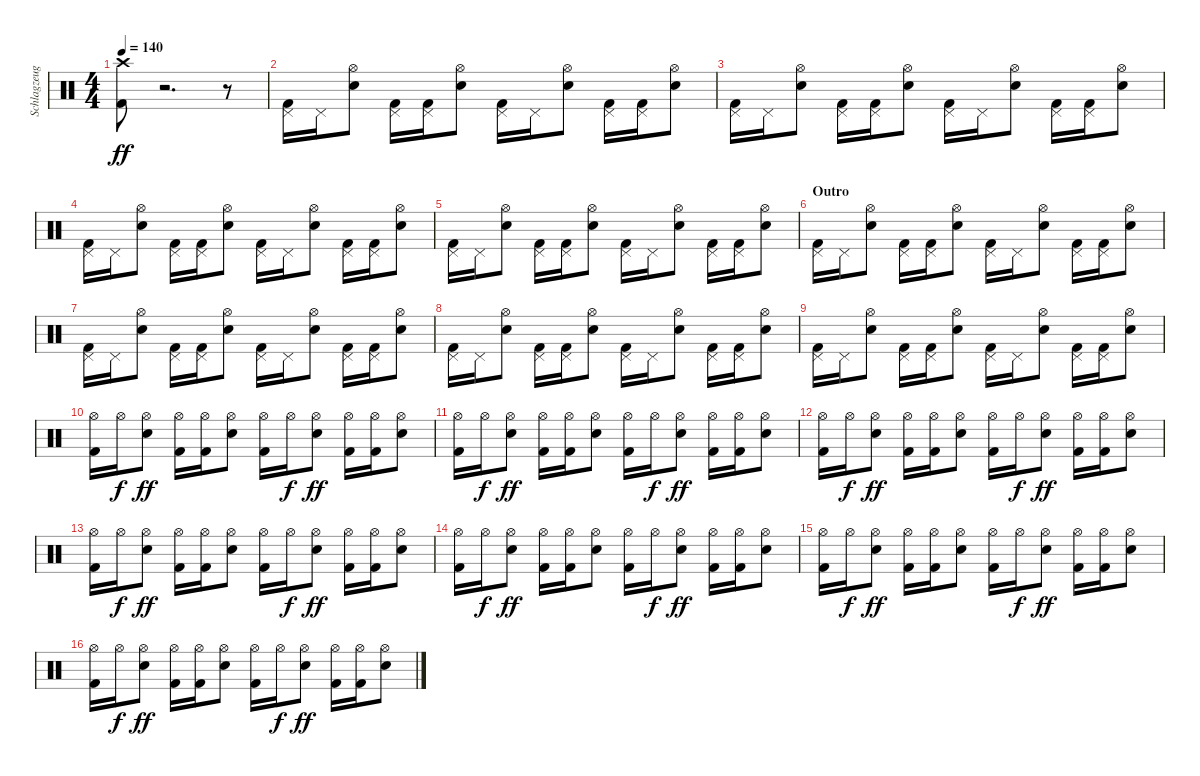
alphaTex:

\track ("Schlagzeug - Bela B." "Schlagzeug") {instrument percussion}
\staff {score}
\articulation defaults
\ts (4 4)
\tempo 140
\clef neutral
\ks c
("Crash high (hit)" "Kick (hit) 2").8{dy ff} r.2{d} r.8 |
("Kick (hit) 2" "Pedal Hi-Hat (hit)").16 "Pedal Hi-Hat (hit)".16 ("Electric Snare (hit)" "Hi-Hat (open)").8 ("Kick (hit) 2" "Pedal Hi-Hat (hit)").16 ("Kick (hit) 2" "Pedal Hi-Hat (hit)").16 ("Electric Snare (hit)" "Hi-Hat (open)").8 ("Kick (hit) 2" "Pedal Hi-Hat (hit)").16 "Pedal Hi-Hat (hit)".16 ("Electric Snare (hit)" "Hi-Hat (open)").8 ("Kick (hit) 2" "Pedal Hi-Hat (hit)").16 ("Kick (hit) 2" "Pedal Hi-Hat (hit)").16 ("Electric Snare (hit)" "Hi-Hat (open)").8 |
("Kick (hit) 2" "Pedal Hi-Hat (hit)").16 "Pedal Hi-Hat (hit)".16 ("Electric Snare (hit)" "Hi-Hat (open)").8 ("Kick (hit) 2" "Pedal Hi-Hat (hit)").16 ("Kick (hit) 2" "Pedal Hi-Hat (hit)").16 ("Electric Snare (hit)" "Hi-Hat (open)").8 ("Kick (hit) 2" "Pedal Hi-Hat (hit)").16 "Pedal Hi-Hat (hit)".16 ("Electric Snare (hit)" "Hi-Hat (open)").8 ("Kick (hit) 2" "Pedal Hi-Hat (hit)").16 ("Kick (hit) 2" "Pedal Hi-Hat (hit)").16 ("Electric Snare (hit)" "Hi-Hat (open)").8 |
("Kick (hit) 2" "Pedal Hi-Hat (hit)").16 "Pedal Hi-Hat (hit)".16 ("Electric Snare (hit)" "Hi-Hat (open)").8 ("Kick (hit) 2" "Pedal Hi-Hat (hit)").16 ("Kick (hit) 2" "Pedal Hi-Hat (hit)").16 ("Electric Snare (hit)" "Hi-Hat (open)").8 ("Kick (hit) 2" "Pedal Hi-Hat (hit)").16 "Pedal Hi-Hat (hit)".16 ("Electric Snare (hit)" "Hi-Hat (open)").8 ("Kick (hit) 2" "Pedal Hi-Hat (hit)").16 ("Kick (hit) 2" "Pedal Hi-Hat (hit)").16 ("Electric Snare (hit)" "Hi-Hat (open)").8 |
("Kick (hit) 2" "Pedal Hi-Hat (hit)").16 "Pedal Hi-Hat (hit)".16 ("Electric Snare (hit)" "Hi-Hat (open)").8 ("Kick (hit) 2" "Pedal Hi-Hat (hit)").16 ("Kick (hit) 2" "Pedal Hi-Hat (hit)").16 ("Electric Snare (hit)" "Hi-Hat (open)").8 ("Pedal Hi-Hat (hit)" "Kick (hit) 2").16 "Pedal Hi-Hat (hit)".16 ("Hi-Hat (open)" "Electric Snare (hit)").8 ("Kick (hit) 2" "Pedal Hi-Hat (hit)").16 ("Pedal Hi-Hat (hit)" "Kick (hit) 2").16 ("Hi-Hat (open)" "Electric Snare (hit)").8 |
\section ("" "Outro")
("Kick (hit) 2" "Pedal Hi-Hat (hit)").16 "Pedal Hi-Hat (hit)".16 ("Electric Snare (hit)" "Hi-Hat (open)").8 ("Kick (hit) 2" "Pedal Hi-Hat (hit)").16 ("Kick (hit) 2" "Pedal Hi-Hat (hit)").16 ("Electric Snare (hit)" "Hi-Hat (open)").8 ("Kick (hit) 2" "Pedal Hi-Hat (hit)").16 "Pedal Hi-Hat (hit)".16 ("Electric Snare (hit)" "Hi-Hat (open)").8 ("Kick (hit) 2" "Pedal Hi-Hat (hit)").16 ("Kick (hit) 2" "Pedal Hi-Hat (hit)").16 ("Electric Snare (hit)" "Hi-Hat (open)").8 |
("Kick (hit) 2" "Pedal Hi-Hat (hit)").16 "Pedal Hi-Hat (hit)".16 ("Electric Snare (hit)" "Hi-Hat (open)").8 ("Kick (hit) 2" "Pedal Hi-Hat (hit)").16 ("Kick (hit) 2" "Pedal Hi-Hat (hit)").16 ("Electric Snare (hit)" "Hi-Hat (open)").8 ("Kick (hit) 2" "Pedal Hi-Hat (hit)").16 "Pedal Hi-Hat (hit)".16 ("Electric Snare (hit)" "Hi-Hat (open)").8 ("Kick (hit) 2" "Pedal Hi-Hat (hit)").16 ("Kick (hit) 2" "Pedal Hi-Hat (hit)").16 ("Electric Snare (hit)" "Hi-Hat (open)").8 |
("Kick (hit) 2" "Pedal Hi-Hat (hit)").16 "Pedal Hi-Hat (hit)".16 ("Electric Snare (hit)" "Hi-Hat (open)").8 ("Kick (hit) 2" "Pedal Hi-Hat (hit)").16 ("Kick (hit) 2" "Pedal Hi-Hat (hit)").16 ("Electric Snare (hit)" "Hi-Hat (open)").8 ("Kick (hit) 2" "Pedal Hi-Hat (hit)").16 "Pedal Hi-Hat (hit)".16 ("Electric Snare (hit)" "Hi-Hat (open)").8 ("Kick (hit) 2" "Pedal Hi-Hat (hit)").16 ("Kick (hit) 2" "Pedal Hi-Hat (hit)").16 ("Electric Snare (hit)" "Hi-Hat (open)").8 |
("Kick (hit) 2" "Pedal Hi-Hat (hit)").16 "Pedal Hi-Hat (hit)".16 ("Electric Snare (hit)" "Hi-Hat (open)").8 ("Kick (hit) 2" "Pedal Hi-Hat (hit)").16 ("Kick (hit) 2" "Pedal Hi-Hat (hit)").16 ("Electric Snare (hit)" "Hi-Hat (open)").8 ("Pedal Hi-Hat (hit)" "Kick (hit) 2").16 "Pedal Hi-Hat (hit)".16 ("Hi-Hat (open)" "Electric Snare (hit)").8 ("Kick (hit) 2" "Pedal Hi-Hat (hit)").16 ("Pedal Hi-Hat (hit)" "Kick (hit) 2").16 ("Hi-Hat (open)" "Electric Snare (hit)").8 |
("Kick (hit) 2" "Hi-Hat (open)").16 "Hi-Hat (open)".16{dy f} ("Electric Snare (hit)" "Hi-Hat (open)").8{dy ff} ("Hi-Hat (open)" "Kick (hit) 2").16 ("Kick (hit) 2" "Hi-Hat (open)").16 ("Hi-Hat (open)" "Electric Snare (hit)").8 ("Kick (hit) 2" "Hi-Hat (open)").16 "Hi-Hat (open)".16{dy f} ("Hi-Hat (open)" "Electric Snare (hit)").8{dy ff} ("Kick (hit) 2" "Hi-Hat (open)").16 ("Hi-Hat (open)" "Kick (hit) 2").16 ("Electric Snare (hit)" "Hi-Hat (open)").8 |
("Hi-Hat (open)" "Kick (hit) 2").16 "Hi-Hat (open)".16{dy f} ("Hi-Hat (open)" "Electric Snare (hit)").8{dy ff} ("Hi-Hat (open)" "Kick (hit) 2").16 ("Hi-Hat (open)" "Kick (hit) 2").16 ("Electric Snare (hit)" "Hi-Hat (open)").8 ("Hi-Hat (open)" "Kick (hit) 2").16 "Hi-Hat (open)".16{dy f} ("Hi-Hat (open)" "Electric Snare (hit)").8{dy ff} ("Kick (hit) 2" "Hi-Hat (open)").16 ("Kick (hit) 2" "Hi-Hat (open)").16 ("Hi-Hat (open)" "Electric Snare (hit)").8 |
("Hi-Hat (open)" "Kick (hit) 2").16 "Hi-Hat (open)".16{dy f} ("Hi-Hat (open)" "Electric Snare (hit)").8{dy ff} ("Kick (hit) 2" "Hi-Hat (open)").16 ("Hi-Hat (open)" "Kick (hit) 2").16 ("Hi-Hat (open)" "Electric Snare (hit)").8 ("Kick (hit) 2" "Hi-Hat (open)").16 "Hi-Hat (open)".16{dy f} ("Electric Snare (hit)" "Hi-Hat (open)").8{dy ff} ("Hi-Hat (open)" "Kick (hit) 2").16 ("Kick (hit) 2" "Hi-Hat (open)").16 ("Electric Snare (hit)" "Hi-Hat (open)").8 |
("Kick (hit) 2" "Hi-Hat (open)").16 "Hi-Hat (open)".16{dy f} ("Electric Snare (hit)" "Hi-Hat (open)").8{dy ff} ("Hi-Hat (open)" "Kick (hit) 2").16 ("Kick (hit) 2" "Hi-Hat (open)").16 ("Hi-Hat (open)" "Electric Snare (hit)").8 ("Kick (hit) 2" "Hi-Hat (open)").16 "Hi-Hat (open)".16{dy f} ("Hi-Hat (open)" "Electric Snare (hit)").8{dy ff} ("Hi-Hat (open)" "Kick (hit) 2").16 ("Kick (hit) 2" "Hi-Hat (open)").16 ("Electric Snare (hit)" "Hi-Hat (open)").8 |
("Hi-Hat (open)" "Kick (hit) 2").16 "Hi-Hat (open)".16{dy f} ("Hi-Hat (open)" "Electric Snare (hit)").8{dy ff} ("Hi-Hat (open)" "Kick (hit) 2").16 ("Hi-Hat (open)" "Kick (hit) 2").16 ("Hi-Hat (open)" "Electric Snare (hit)").8 ("Hi-Hat (open)" "Kick (hit) 2").16 "Hi-Hat (open)".16{dy f} ("Hi-Hat (open)" "Electric Snare (hit)").8{dy ff} ("Hi-Hat (open)" "Kick (hit) 2").16 ("Hi-Hat (open)" "Kick (hit) 2").16 ("Hi-Hat (open)" "Electric Snare (hit)").8 |
("Hi-Hat (open)" "Kick (hit) 2").16 "Hi-Hat (open)".16{dy f} ("Hi-Hat (open)" "Electric Snare (hit)").8{dy ff} ("Hi-Hat (open)" "Kick (hit) 2").16 ("Hi-Hat (open)" "Kick (hit) 2").16 ("Hi-Hat (open)" "Electric Snare (hit)").8 ("Hi-Hat (open)" "Kick (hit) 2").16 "Hi-Hat (open)".16{dy f} ("Hi-Hat (open)" "Electric Snare (hit)").8{dy ff} ("Hi-Hat (open)" "Kick (hit) 2").16 ("Hi-Hat (open)" "Kick (hit) 2").16 ("Hi-Hat (open)" "Electric Snare (hit)").8 |
("Hi-Hat (open)" "Kick (hit) 2").16 "Hi-Hat (open)".16{dy f} ("Hi-Hat (open)" "Electric Snare (hit)").8{dy ff} ("Hi-Hat (open)" "Kick (hit) 2").16 ("Hi-Hat (open)" "Kick (hit) 2").16 ("Hi-Hat (open)" "Electric Snare (hit)").8 ("Hi-Hat (open)" "Kick (hit) 2").16 "Hi-Hat (open)".16{dy f} ("Hi-Hat (open)" "Electric Snare (hit)").8{dy ff} ("Hi-Hat (open)" "Kick (hit) 2").16 ("Hi-Hat (open)" "Kick (hit) 2").16 ("Hi-Hat (open)" "Electric Snare (hit)").8
